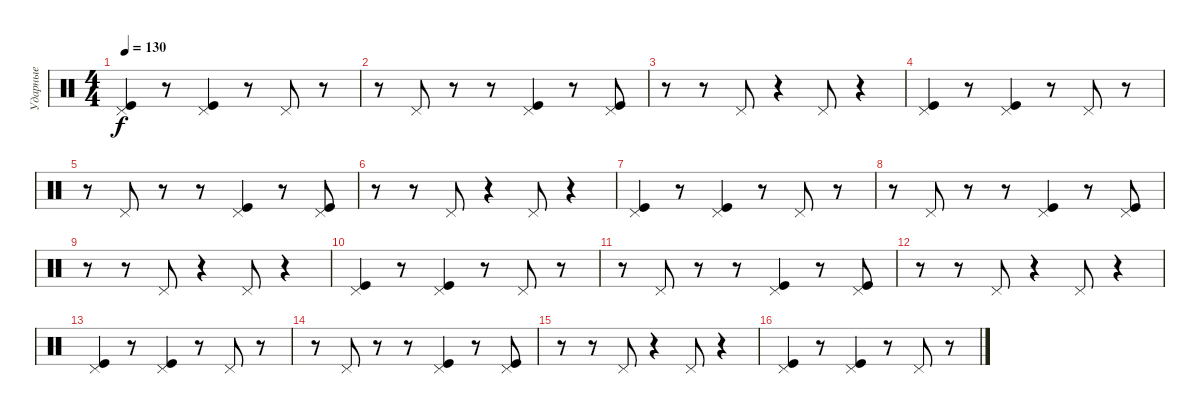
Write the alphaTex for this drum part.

\track ("Ударные" "Ударные") {instrument percussion}
\staff {score}
\articulation defaults
\ts (4 4)
\tempo 130
\clef neutral
\ks c
("Pedal Hi-Hat (hit)" "Kick (hit)").4{dy f} r.8 ("Pedal Hi-Hat (hit)" "Kick (hit)").4 r.8 "Pedal Hi-Hat (hit)".8 r.8 |
r.8 "Pedal Hi-Hat (hit)".8 r.8 r.8 ("Pedal Hi-Hat (hit)" "Kick (hit)").4 r.8 ("Pedal Hi-Hat (hit)" "Kick (hit)").8 |
r.8 r.8 "Pedal Hi-Hat (hit)".8 r.4 "Pedal Hi-Hat (hit)".8 r.4 |
("Pedal Hi-Hat (hit)" "Kick (hit)").4 r.8 ("Pedal Hi-Hat (hit)" "Kick (hit)").4 r.8 "Pedal Hi-Hat (hit)".8 r.8 |
r.8 "Pedal Hi-Hat (hit)".8 r.8 r.8 ("Pedal Hi-Hat (hit)" "Kick (hit)").4 r.8 ("Pedal Hi-Hat (hit)" "Kick (hit)").8 |
r.8 r.8 "Pedal Hi-Hat (hit)".8 r.4 "Pedal Hi-Hat (hit)".8 r.4 |
("Pedal Hi-Hat (hit)" "Kick (hit)").4 r.8 ("Pedal Hi-Hat (hit)" "Kick (hit)").4 r.8 "Pedal Hi-Hat (hit)".8 r.8 |
r.8 "Pedal Hi-Hat (hit)".8 r.8 r.8 ("Pedal Hi-Hat (hit)" "Kick (hit)").4 r.8 ("Pedal Hi-Hat (hit)" "Kick (hit)").8 |
r.8 r.8 "Pedal Hi-Hat (hit)".8 r.4 "Pedal Hi-Hat (hit)".8 r.4 |
("Pedal Hi-Hat (hit)" "Kick (hit)").4 r.8 ("Pedal Hi-Hat (hit)" "Kick (hit)").4 r.8 "Pedal Hi-Hat (hit)".8 r.8 |
r.8 "Pedal Hi-Hat (hit)".8 r.8 r.8 ("Pedal Hi-Hat (hit)" "Kick (hit)").4 r.8 ("Pedal Hi-Hat (hit)" "Kick (hit)").8 |
r.8 r.8 "Pedal Hi-Hat (hit)".8 r.4 "Pedal Hi-Hat (hit)".8 r.4 |
("Pedal Hi-Hat (hit)" "Kick (hit)").4 r.8 ("Pedal Hi-Hat (hit)" "Kick (hit)").4 r.8 "Pedal Hi-Hat (hit)".8 r.8 |
r.8 "Pedal Hi-Hat (hit)".8 r.8 r.8 ("Pedal Hi-Hat (hit)" "Kick (hit)").4 r.8 ("Pedal Hi-Hat (hit)" "Kick (hit)").8 |
r.8 r.8 "Pedal Hi-Hat (hit)".8 r.4 "Pedal Hi-Hat (hit)".8 r.4 |
("Pedal Hi-Hat (hit)" "Kick (hit)").4 r.8 ("Pedal Hi-Hat (hit)" "Kick (hit)").4 r.8 "Pedal Hi-Hat (hit)".8 r.8
